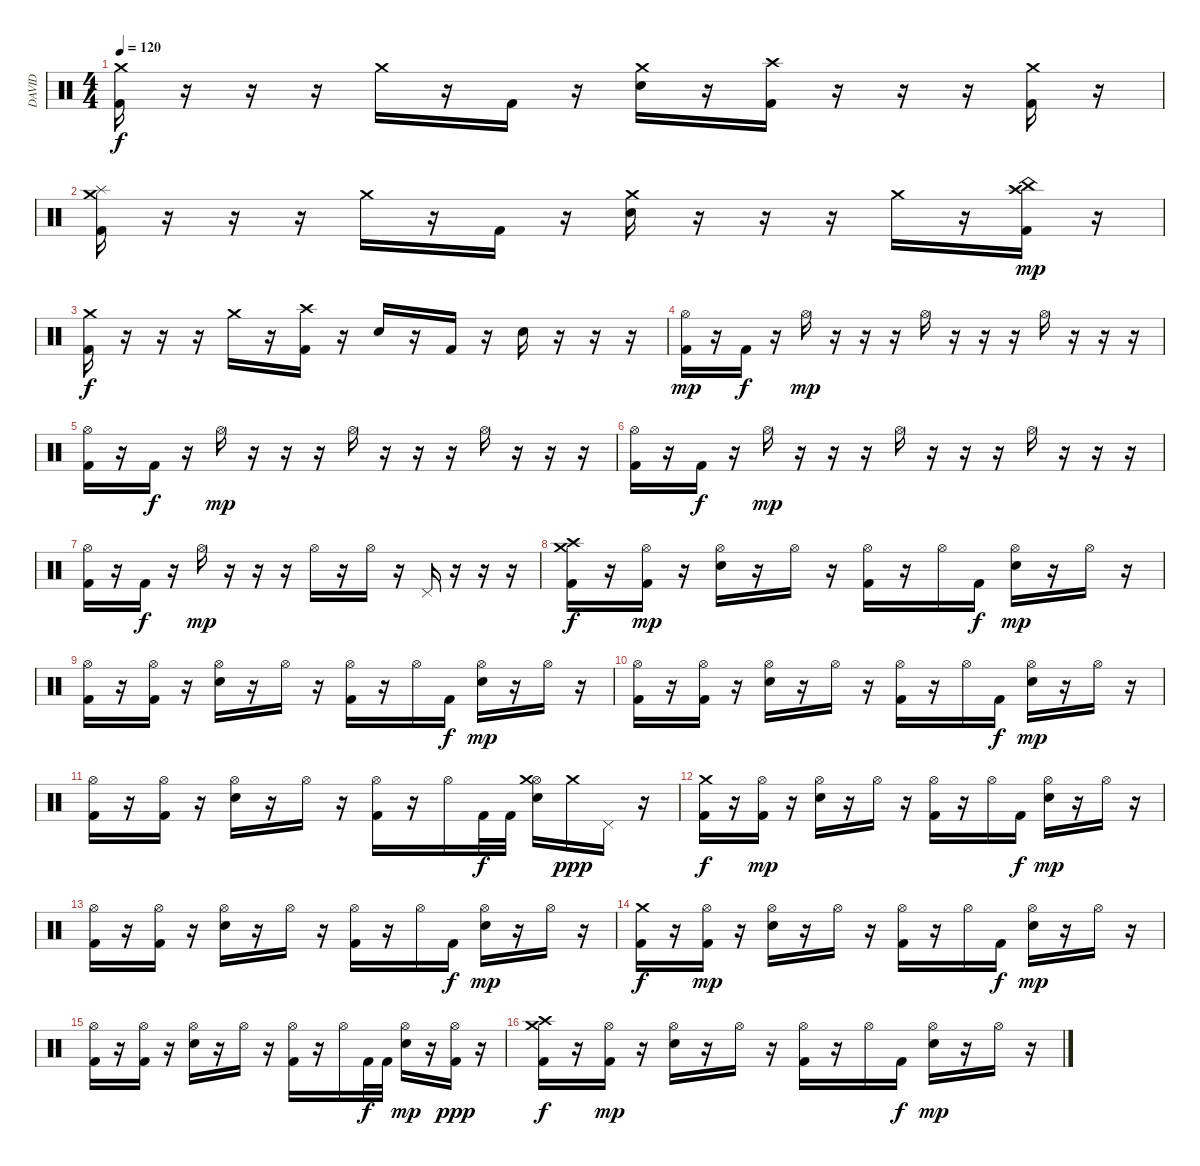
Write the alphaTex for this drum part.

\track ("DAVID" "DAVID") {instrument percussion}
\staff {score}
\articulation defaults
\ts (4 4)
\tempo 120
\clef neutral
\ks c
("Crash medium (hit)" "Kick (hit) 2").16{dy f} r.16 r.16 r.16 "Crash medium (hit)".16 r.16 "Kick (hit) 2".16 r.16 ("Crash medium (hit)" "Snare (hit) 2").16 r.16 ("Crash high (hit)" "Kick (hit) 2").16 r.16 r.16 r.16 ("Crash medium (hit)" "Kick (hit) 2").16 r.16 |
("Crash medium (hit)" "Splash (hit)" "Kick (hit) 2").16 r.16 r.16 r.16 "Crash medium (hit)".16 r.16 "Kick (hit) 2".16 r.16 ("Crash medium (hit)" "Snare (hit) 2").16 r.16 r.16 r.16 "Crash medium (hit)".16 r.16 ("Crash high (hit)" "China (hit)" "Kick (hit) 2").16{dy mp} r.16 |
("Crash medium (hit)" "Kick (hit) 2").16{dy f} r.16 r.16 r.16 "Crash medium (hit)".16 r.16 ("Crash high (hit)" "Kick (hit) 2").16 r.16 "Snare (hit) 2".16 r.16 "Kick (hit) 2".16 r.16 "Snare (hit) 2".16 r.16 r.16 r.16 |
("Hi-Hat (open)" "Kick (hit) 2").16{dy mp} r.16 "Kick (hit) 2".16{dy f} r.16 "Hi-Hat (open)".16{dy mp} r.16 r.16 r.16 "Hi-Hat (open)".16 r.16 r.16 r.16 "Hi-Hat (open)".16 r.16 r.16 r.16 |
("Hi-Hat (open)" "Kick (hit) 2").16 r.16 "Kick (hit) 2".16{dy f} r.16 "Hi-Hat (open)".16{dy mp} r.16 r.16 r.16 "Hi-Hat (open)".16 r.16 r.16 r.16 "Hi-Hat (open)".16 r.16 r.16 r.16 |
("Hi-Hat (open)" "Kick (hit) 2").16 r.16 "Kick (hit) 2".16{dy f} r.16 "Hi-Hat (open)".16{dy mp} r.16 r.16 r.16 "Hi-Hat (open)".16 r.16 r.16 r.16 "Hi-Hat (open)".16 r.16 r.16 r.16 |
("Hi-Hat (open)" "Kick (hit) 2").16 r.16 "Kick (hit) 2".16{dy f} r.16 "Hi-Hat (open)".16{dy mp} r.16 r.16 r.16 "Hi-Hat (open)".16 r.16 "Hi-Hat (open)".16 r.16 "Pedal Hi-Hat (hit)".16 r.16 r.16 r.16 |
("Crash medium (hit)" "Crash high (hit)" "Kick (hit) 2").16{dy f} r.16 ("Hi-Hat (open)" "Kick (hit) 2").16{dy mp} r.16 ("Hi-Hat (open)" "Snare (hit) 2").16 r.16 "Hi-Hat (open)".16 r.16 ("Hi-Hat (open)" "Kick (hit) 2").16 r.16 "Hi-Hat (open)".16 "Kick (hit) 2".16{dy f} ("Hi-Hat (open)" "Snare (hit) 2").16{dy mp} r.16 "Hi-Hat (open)".16 r.16 |
("Hi-Hat (open)" "Kick (hit) 2").16 r.16 ("Hi-Hat (open)" "Kick (hit) 2").16 r.16 ("Hi-Hat (open)" "Snare (hit) 2").16 r.16 "Hi-Hat (open)".16 r.16 ("Hi-Hat (open)" "Kick (hit) 2").16 r.16 "Hi-Hat (open)".16 "Kick (hit) 2".16{dy f} ("Hi-Hat (open)" "Snare (hit) 2").16{dy mp} r.16 "Hi-Hat (open)".16 r.16 |
("Hi-Hat (open)" "Kick (hit) 2").16 r.16 ("Hi-Hat (open)" "Kick (hit) 2").16 r.16 ("Hi-Hat (open)" "Snare (hit) 2").16 r.16 "Hi-Hat (open)".16 r.16 ("Hi-Hat (open)" "Kick (hit) 2").16 r.16 "Hi-Hat (open)".16 "Kick (hit) 2".16{dy f} ("Hi-Hat (open)" "Snare (hit) 2").16{dy mp} r.16 "Hi-Hat (open)".16 r.16 |
("Hi-Hat (open)" "Kick (hit) 2").16 r.16 ("Hi-Hat (open)" "Kick (hit) 2").16 r.16 ("Hi-Hat (open)" "Snare (hit) 2").16 r.16 "Hi-Hat (open)".16 r.16 ("Hi-Hat (open)" "Kick (hit) 2").16 r.16 "Hi-Hat (open)".16 "Kick (hit) 2".32{dy f} "Kick (hit) 2".32 ("Hi-Hat (open)" "Crash medium (hit)" "Snare (hit) 2").16 "Crash medium (hit)".16{dy ppp} "Pedal Hi-Hat (hit)".16 r.16 |
("Crash medium (hit)" "Kick (hit) 2").16{dy f} r.16 ("Hi-Hat (open)" "Kick (hit) 2").16{dy mp} r.16 ("Hi-Hat (open)" "Snare (hit) 2").16 r.16 "Hi-Hat (open)".16 r.16 ("Hi-Hat (open)" "Kick (hit) 2").16 r.16 "Hi-Hat (open)".16 "Kick (hit) 2".16{dy f} ("Hi-Hat (open)" "Snare (hit) 2").16{dy mp} r.16 "Hi-Hat (open)".16 r.16 |
("Hi-Hat (open)" "Kick (hit) 2").16 r.16 ("Hi-Hat (open)" "Kick (hit) 2").16 r.16 ("Hi-Hat (open)" "Snare (hit) 2").16 r.16 "Hi-Hat (open)".16 r.16 ("Hi-Hat (open)" "Kick (hit) 2").16 r.16 "Hi-Hat (open)".16 "Kick (hit) 2".16{dy f} ("Hi-Hat (open)" "Snare (hit) 2").16{dy mp} r.16 "Hi-Hat (open)".16 r.16 |
("Crash medium (hit)" "Kick (hit) 2").16{dy f} r.16 ("Hi-Hat (open)" "Kick (hit) 2").16{dy mp} r.16 ("Hi-Hat (open)" "Snare (hit) 2").16 r.16 "Hi-Hat (open)".16 r.16 ("Hi-Hat (open)" "Kick (hit) 2").16 r.16 "Hi-Hat (open)".16 "Kick (hit) 2".16{dy f} ("Hi-Hat (open)" "Snare (hit) 2").16{dy mp} r.16 "Hi-Hat (open)".16 r.16 |
("Hi-Hat (open)" "Kick (hit) 2").16 r.16 ("Hi-Hat (open)" "Kick (hit) 2").16 r.16 ("Hi-Hat (open)" "Snare (hit) 2").16 r.16 "Hi-Hat (open)".16 r.16 ("Hi-Hat (open)" "Kick (hit) 2").16 r.16 "Hi-Hat (open)".16 "Kick (hit) 2".32{dy f} "Kick (hit) 2".32 ("Hi-Hat (open)" "Snare (hit) 2").16{dy mp} r.16 ("Hi-Hat (open)" "Kick (hit) 2").16{dy ppp} r.16 |
("Crash medium (hit)" "Crash high (hit)" "Kick (hit) 2").16{dy f} r.16 ("Hi-Hat (open)" "Kick (hit) 2").16{dy mp} r.16 ("Hi-Hat (open)" "Snare (hit) 2").16 r.16 "Hi-Hat (open)".16 r.16 ("Hi-Hat (open)" "Kick (hit) 2").16 r.16 "Hi-Hat (open)".16 "Kick (hit) 2".16{dy f} ("Hi-Hat (open)" "Snare (hit) 2").16{dy mp} r.16 "Hi-Hat (open)".16 r.16
